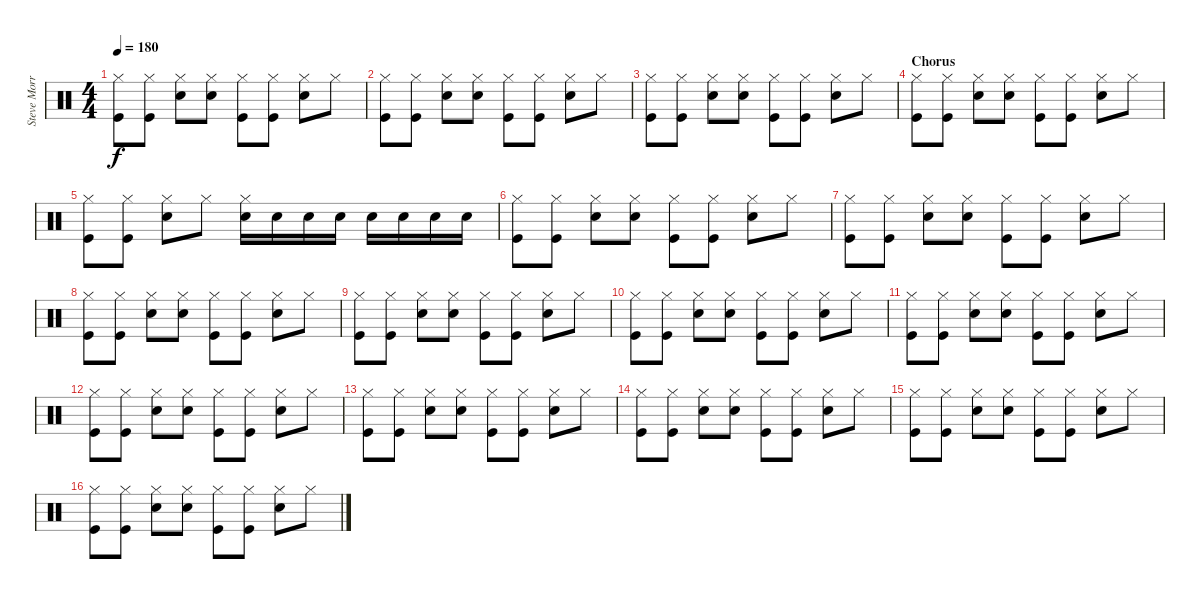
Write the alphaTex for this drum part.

\track ("Steve Morris" "Steve Morr") {instrument percussion}
\staff {score}
\articulation defaults
\ts (4 4)
\tempo 180
\clef neutral
\ks c
("Hi-Hat (closed)" "Kick (hit)").8{dy f} ("Hi-Hat (closed)" "Kick (hit)").8 ("Hi-Hat (closed)" "Electric Snare (hit)").8 ("Hi-Hat (closed)" "Electric Snare (hit)").8 ("Hi-Hat (closed)" "Kick (hit)").8 ("Hi-Hat (closed)" "Kick (hit)").8 ("Hi-Hat (closed)" "Electric Snare (hit)").8 "Hi-Hat (closed)".8 |
("Hi-Hat (closed)" "Kick (hit)").8 ("Hi-Hat (closed)" "Kick (hit)").8 ("Hi-Hat (closed)" "Electric Snare (hit)").8 ("Hi-Hat (closed)" "Electric Snare (hit)").8 ("Hi-Hat (closed)" "Kick (hit)").8 ("Hi-Hat (closed)" "Kick (hit)").8 ("Hi-Hat (closed)" "Electric Snare (hit)").8 "Hi-Hat (closed)".8 |
("Hi-Hat (closed)" "Kick (hit)").8 ("Hi-Hat (closed)" "Kick (hit)").8 ("Hi-Hat (closed)" "Electric Snare (hit)").8 ("Hi-Hat (closed)" "Electric Snare (hit)").8 ("Hi-Hat (closed)" "Kick (hit)").8 ("Hi-Hat (closed)" "Kick (hit)").8 ("Hi-Hat (closed)" "Electric Snare (hit)").8 "Hi-Hat (closed)".8 |
\section ("" "Chorus")
("Hi-Hat (closed)" "Kick (hit)").8 ("Hi-Hat (closed)" "Kick (hit)").8 ("Hi-Hat (closed)" "Electric Snare (hit)").8 ("Hi-Hat (closed)" "Electric Snare (hit)").8 ("Hi-Hat (closed)" "Kick (hit)").8 ("Hi-Hat (closed)" "Kick (hit)").8 ("Hi-Hat (closed)" "Electric Snare (hit)").8 "Hi-Hat (closed)".8 |
("Hi-Hat (closed)" "Kick (hit)").8 ("Hi-Hat (closed)" "Kick (hit)").8 ("Hi-Hat (closed)" "Electric Snare (hit)").8 "Hi-Hat (closed)".8 ("Hi-Hat (closed)" "Electric Snare (hit)").16 "Electric Snare (hit)".16 "Electric Snare (hit)".16 "Electric Snare (hit)".16 "Electric Snare (hit)".16 "Electric Snare (hit)".16 "Electric Snare (hit)".16 "Electric Snare (hit)".16 |
("Hi-Hat (closed)" "Kick (hit)").8 ("Hi-Hat (closed)" "Kick (hit)").8 ("Hi-Hat (closed)" "Electric Snare (hit)").8 ("Hi-Hat (closed)" "Electric Snare (hit)").8 ("Hi-Hat (closed)" "Kick (hit)").8 ("Hi-Hat (closed)" "Kick (hit)").8 ("Hi-Hat (closed)" "Electric Snare (hit)").8 "Hi-Hat (closed)".8 |
("Hi-Hat (closed)" "Kick (hit)").8 ("Hi-Hat (closed)" "Kick (hit)").8 ("Hi-Hat (closed)" "Electric Snare (hit)").8 ("Hi-Hat (closed)" "Electric Snare (hit)").8 ("Hi-Hat (closed)" "Kick (hit)").8 ("Hi-Hat (closed)" "Kick (hit)").8 ("Hi-Hat (closed)" "Electric Snare (hit)").8 "Hi-Hat (closed)".8 |
("Hi-Hat (closed)" "Kick (hit)").8 ("Hi-Hat (closed)" "Kick (hit)").8 ("Hi-Hat (closed)" "Electric Snare (hit)").8 ("Hi-Hat (closed)" "Electric Snare (hit)").8 ("Hi-Hat (closed)" "Kick (hit)").8 ("Hi-Hat (closed)" "Kick (hit)").8 ("Hi-Hat (closed)" "Electric Snare (hit)").8 "Hi-Hat (closed)".8 |
("Hi-Hat (closed)" "Kick (hit)").8 ("Hi-Hat (closed)" "Kick (hit)").8 ("Hi-Hat (closed)" "Electric Snare (hit)").8 ("Hi-Hat (closed)" "Electric Snare (hit)").8 ("Hi-Hat (closed)" "Kick (hit)").8 ("Hi-Hat (closed)" "Kick (hit)").8 ("Hi-Hat (closed)" "Electric Snare (hit)").8 "Hi-Hat (closed)".8 |
("Hi-Hat (closed)" "Kick (hit)").8 ("Hi-Hat (closed)" "Kick (hit)").8 ("Hi-Hat (closed)" "Electric Snare (hit)").8 ("Hi-Hat (closed)" "Electric Snare (hit)").8 ("Hi-Hat (closed)" "Kick (hit)").8 ("Hi-Hat (closed)" "Kick (hit)").8 ("Hi-Hat (closed)" "Electric Snare (hit)").8 "Hi-Hat (closed)".8 |
("Hi-Hat (closed)" "Kick (hit)").8 ("Hi-Hat (closed)" "Kick (hit)").8 ("Hi-Hat (closed)" "Electric Snare (hit)").8 ("Hi-Hat (closed)" "Electric Snare (hit)").8 ("Hi-Hat (closed)" "Kick (hit)").8 ("Hi-Hat (closed)" "Kick (hit)").8 ("Hi-Hat (closed)" "Electric Snare (hit)").8 "Hi-Hat (closed)".8 |
("Hi-Hat (closed)" "Kick (hit)").8 ("Hi-Hat (closed)" "Kick (hit)").8 ("Hi-Hat (closed)" "Electric Snare (hit)").8 ("Hi-Hat (closed)" "Electric Snare (hit)").8 ("Hi-Hat (closed)" "Kick (hit)").8 ("Hi-Hat (closed)" "Kick (hit)").8 ("Hi-Hat (closed)" "Electric Snare (hit)").8 "Hi-Hat (closed)".8 |
("Hi-Hat (closed)" "Kick (hit)").8 ("Hi-Hat (closed)" "Kick (hit)").8 ("Hi-Hat (closed)" "Electric Snare (hit)").8 ("Hi-Hat (closed)" "Electric Snare (hit)").8 ("Hi-Hat (closed)" "Kick (hit)").8 ("Hi-Hat (closed)" "Kick (hit)").8 ("Hi-Hat (closed)" "Electric Snare (hit)").8 "Hi-Hat (closed)".8 |
("Hi-Hat (closed)" "Kick (hit)").8 ("Hi-Hat (closed)" "Kick (hit)").8 ("Hi-Hat (closed)" "Electric Snare (hit)").8 ("Hi-Hat (closed)" "Electric Snare (hit)").8 ("Hi-Hat (closed)" "Kick (hit)").8 ("Hi-Hat (closed)" "Kick (hit)").8 ("Hi-Hat (closed)" "Electric Snare (hit)").8 "Hi-Hat (closed)".8 |
("Hi-Hat (closed)" "Kick (hit)").8 ("Hi-Hat (closed)" "Kick (hit)").8 ("Hi-Hat (closed)" "Electric Snare (hit)").8 ("Hi-Hat (closed)" "Electric Snare (hit)").8 ("Hi-Hat (closed)" "Kick (hit)").8 ("Hi-Hat (closed)" "Kick (hit)").8 ("Hi-Hat (closed)" "Electric Snare (hit)").8 "Hi-Hat (closed)".8 |
("Hi-Hat (closed)" "Kick (hit)").8 ("Hi-Hat (closed)" "Kick (hit)").8 ("Hi-Hat (closed)" "Electric Snare (hit)").8 ("Hi-Hat (closed)" "Electric Snare (hit)").8 ("Hi-Hat (closed)" "Kick (hit)").8 ("Hi-Hat (closed)" "Kick (hit)").8 ("Hi-Hat (closed)" "Electric Snare (hit)").8 "Hi-Hat (closed)".8
